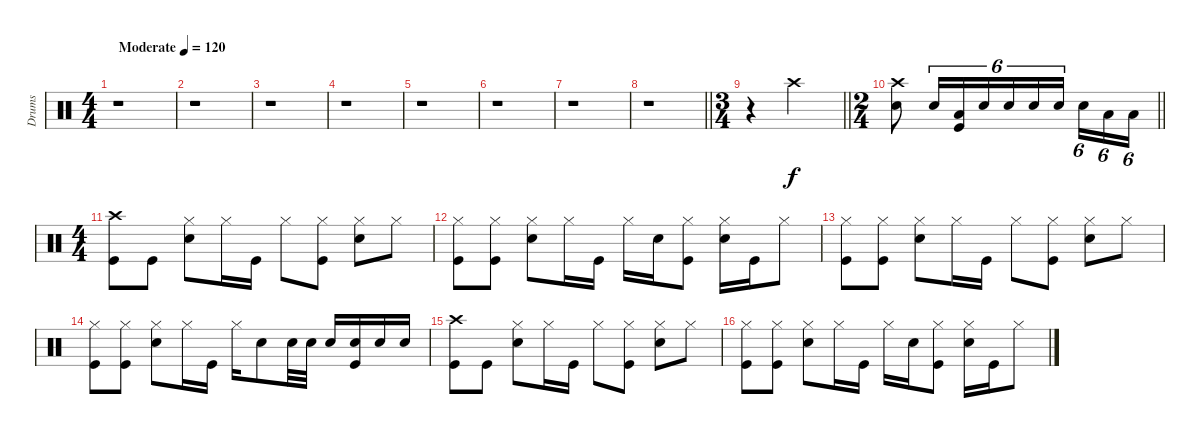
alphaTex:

\track ("Drums" "Drums") {instrument percussion}
\staff {score}
\articulation defaults
\ts (4 4)
\tempo (120 "Moderate")
\clef neutral
\ks c
r.1{dy f} |
r.1 |
r.1 |
r.1 |
r.1 |
r.1 |
r.1 |
\barLineRight lightlight
r.1 |
\ts (3 4)
\barLineRight lightlight
r.4 "Crash high (hit)".2 |
\ts (2 4)
\barLineRight lightlight
("Snare (hit) 2" "Crash high (hit)").8 "Snare (hit) 2".16{tu (6 4)} ("Low Tom (hit)" "Kick (hit)").16{tu (6 4)} "Snare (hit) 2".16{tu (6 4)} "Snare (hit) 2".16{tu (6 4)} "Snare (hit) 2".16{tu (6 4)} "Snare (hit) 2".16{tu (6 4) beam splitsecondary} "Snare (hit) 2".16{tu (6 4)} "Low Tom (hit)".16{tu (6 4)} "Low Tom (hit)".16{tu (6 4)} |
\ts (4 4)
("Crash high (hit)" "Kick (hit)").8 "Kick (hit)".8 ("Snare (hit) 2" "Hi-Hat (closed)").8 "Hi-Hat (closed)".16 "Kick (hit)".16 "Hi-Hat (closed)".8 ("Kick (hit)" "Hi-Hat (closed)").8 ("Snare (hit) 2" "Hi-Hat (closed)").8 "Hi-Hat (closed)".8 |
("Hi-Hat (closed)" "Kick (hit)").8 ("Hi-Hat (closed)" "Kick (hit)").8 ("Hi-Hat (closed)" "Snare (hit) 2").8 "Hi-Hat (closed)".16 "Kick (hit)".16 "Hi-Hat (closed)".16 "Snare (hit) 2".16 ("Hi-Hat (closed)" "Kick (hit)").8 ("Snare (hit) 2" "Hi-Hat (closed)").16 "Kick (hit)".16 "Hi-Hat (closed)".8 |
("Kick (hit)" "Hi-Hat (closed)").8 ("Kick (hit)" "Hi-Hat (closed)").8 ("Snare (hit) 2" "Hi-Hat (closed)").8 "Hi-Hat (closed)".16 "Kick (hit)".16 "Hi-Hat (closed)".8 ("Kick (hit)" "Hi-Hat (closed)").8 ("Snare (hit) 2" "Hi-Hat (closed)").8 "Hi-Hat (closed)".8 |
("Kick (hit)" "Hi-Hat (closed)").8 ("Kick (hit)" "Hi-Hat (closed)").8 ("Snare (hit) 2" "Hi-Hat (closed)").8 "Hi-Hat (closed)".16 "Kick (hit)".16 "Hi-Hat (closed)".16 "Snare (hit) 2".8 "Snare (hit) 2".32 "Snare (hit) 2".32 "Snare (hit) 2".16 ("Snare (hit) 2" "Kick (hit)").16 "Snare (hit) 2".16 "Snare (hit) 2".16 |
("Crash high (hit)" "Kick (hit)").8 "Kick (hit)".8 ("Snare (hit) 2" "Hi-Hat (closed)").8 "Hi-Hat (closed)".16 "Kick (hit)".16 "Hi-Hat (closed)".8 ("Kick (hit)" "Hi-Hat (closed)").8 ("Snare (hit) 2" "Hi-Hat (closed)").8 "Hi-Hat (closed)".8 |
("Hi-Hat (closed)" "Kick (hit)").8 ("Hi-Hat (closed)" "Kick (hit)").8 ("Hi-Hat (closed)" "Snare (hit) 2").8 "Hi-Hat (closed)".16 "Kick (hit)".16 "Hi-Hat (closed)".16 "Snare (hit) 2".16 ("Hi-Hat (closed)" "Kick (hit)").8 ("Snare (hit) 2" "Hi-Hat (closed)").16 "Kick (hit)".16 "Hi-Hat (closed)".8
